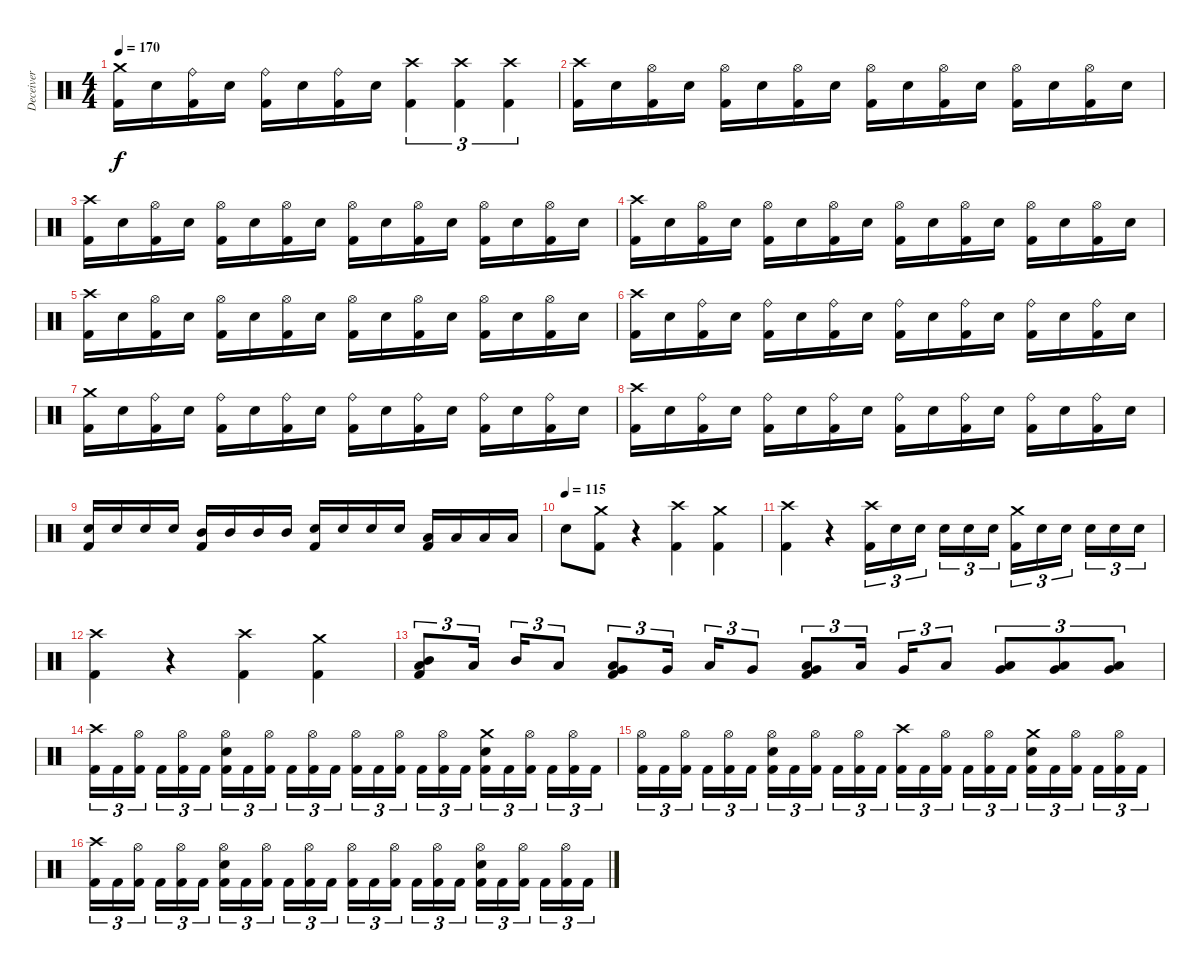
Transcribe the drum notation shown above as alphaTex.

\track ("Deceiver" "Deceiver") {instrument percussion}
\staff {score}
\articulation defaults
\ts (4 4)
\tempo 170
\clef neutral
\ks c
("Crash medium (hit)" "Kick (hit) 2").16{dy f} "Electric Snare (hit)".16 ("Ride (bell)" "Kick (hit) 2").16 "Electric Snare (hit)".16 ("Ride (bell)" "Kick (hit) 2").16 "Electric Snare (hit)".16 ("Ride (bell)" "Kick (hit) 2").16 "Electric Snare (hit)".16 ("Crash high (hit)" "Kick (hit) 2").4{tu (3 2)} ("Crash high (hit)" "Kick (hit) 2").4{tu (3 2)} ("Crash high (hit)" "Kick (hit) 2").4{tu (3 2)} |
("Crash high (hit)" "Kick (hit) 2").16 "Electric Snare (hit)".16 ("Hi-Hat (open)" "Kick (hit) 2").16 "Electric Snare (hit)".16 ("Hi-Hat (open)" "Kick (hit) 2").16 "Electric Snare (hit)".16 ("Hi-Hat (open)" "Kick (hit) 2").16 "Electric Snare (hit)".16 ("Hi-Hat (open)" "Kick (hit) 2").16 "Electric Snare (hit)".16 ("Hi-Hat (open)" "Kick (hit) 2").16 "Electric Snare (hit)".16 ("Hi-Hat (open)" "Kick (hit) 2").16 "Electric Snare (hit)".16 ("Hi-Hat (open)" "Kick (hit) 2").16 "Electric Snare (hit)".16 |
("Crash high (hit)" "Kick (hit) 2").16 "Electric Snare (hit)".16 ("Hi-Hat (open)" "Kick (hit) 2").16 "Electric Snare (hit)".16 ("Hi-Hat (open)" "Kick (hit) 2").16 "Electric Snare (hit)".16 ("Hi-Hat (open)" "Kick (hit) 2").16 "Electric Snare (hit)".16 ("Hi-Hat (open)" "Kick (hit) 2").16 "Electric Snare (hit)".16 ("Hi-Hat (open)" "Kick (hit) 2").16 "Electric Snare (hit)".16 ("Hi-Hat (open)" "Kick (hit) 2").16 "Electric Snare (hit)".16 ("Hi-Hat (open)" "Kick (hit) 2").16 "Electric Snare (hit)".16 |
("Crash high (hit)" "Kick (hit) 2").16 "Electric Snare (hit)".16 ("Hi-Hat (open)" "Kick (hit) 2").16 "Electric Snare (hit)".16 ("Hi-Hat (open)" "Kick (hit) 2").16 "Electric Snare (hit)".16 ("Hi-Hat (open)" "Kick (hit) 2").16 "Electric Snare (hit)".16 ("Hi-Hat (open)" "Kick (hit) 2").16 "Electric Snare (hit)".16 ("Hi-Hat (open)" "Kick (hit) 2").16 "Electric Snare (hit)".16 ("Hi-Hat (open)" "Kick (hit) 2").16 "Electric Snare (hit)".16 ("Hi-Hat (open)" "Kick (hit) 2").16 "Electric Snare (hit)".16 |
("Crash high (hit)" "Kick (hit) 2").16 "Electric Snare (hit)".16 ("Hi-Hat (open)" "Kick (hit) 2").16 "Electric Snare (hit)".16 ("Hi-Hat (open)" "Kick (hit) 2").16 "Electric Snare (hit)".16 ("Hi-Hat (open)" "Kick (hit) 2").16 "Electric Snare (hit)".16 ("Hi-Hat (open)" "Kick (hit) 2").16 "Electric Snare (hit)".16 ("Hi-Hat (open)" "Kick (hit) 2").16 "Electric Snare (hit)".16 ("Hi-Hat (open)" "Kick (hit) 2").16 "Electric Snare (hit)".16 ("Hi-Hat (open)" "Kick (hit) 2").16 "Electric Snare (hit)".16 |
("Crash high (hit)" "Kick (hit) 2").16 "Electric Snare (hit)".16 ("Ride (bell)" "Kick (hit) 2").16 "Electric Snare (hit)".16 ("Ride (bell)" "Kick (hit) 2").16 "Electric Snare (hit)".16 ("Ride (bell)" "Kick (hit) 2").16 "Electric Snare (hit)".16 ("Ride (bell)" "Kick (hit) 2").16 "Electric Snare (hit)".16 ("Ride (bell)" "Kick (hit) 2").16 "Electric Snare (hit)".16 ("Ride (bell)" "Kick (hit) 2").16 "Electric Snare (hit)".16 ("Ride (bell)" "Kick (hit) 2").16 "Electric Snare (hit)".16 |
("Crash medium (hit)" "Kick (hit) 2").16 "Electric Snare (hit)".16 ("Ride (bell)" "Kick (hit) 2").16 "Electric Snare (hit)".16 ("Ride (bell)" "Kick (hit) 2").16 "Electric Snare (hit)".16 ("Ride (bell)" "Kick (hit) 2").16 "Electric Snare (hit)".16 ("Ride (bell)" "Kick (hit) 2").16 "Electric Snare (hit)".16 ("Ride (bell)" "Kick (hit) 2").16 "Electric Snare (hit)".16 ("Ride (bell)" "Kick (hit) 2").16 "Electric Snare (hit)".16 ("Ride (bell)" "Kick (hit) 2").16 "Electric Snare (hit)".16 |
("Crash high (hit)" "Kick (hit) 2").16 "Electric Snare (hit)".16 ("Ride (bell)" "Kick (hit) 2").16 "Electric Snare (hit)".16 ("Ride (bell)" "Kick (hit) 2").16 "Electric Snare (hit)".16 ("Ride (bell)" "Kick (hit) 2").16 "Electric Snare (hit)".16 ("Ride (bell)" "Kick (hit) 2").16 "Electric Snare (hit)".16 ("Ride (bell)" "Kick (hit) 2").16 "Electric Snare (hit)".16 ("Ride (bell)" "Kick (hit) 2").16 "Electric Snare (hit)".16 ("Ride (bell)" "Kick (hit) 2").16 "Electric Snare (hit)".16 |
("Electric Snare (hit)" "Kick (hit) 2").16 "Electric Snare (hit)".16 "Electric Snare (hit)".16 "Electric Snare (hit)".16 ("Mid Tom (hit)" "Kick (hit) 2").16 "Mid Tom (hit)".16 "Mid Tom (hit)".16 "Mid Tom (hit)".16 ("Electric Snare (hit)" "Kick (hit) 2").16 "Electric Snare (hit)".16 "Electric Snare (hit)".16 "Electric Snare (hit)".16 ("Low Tom (hit)" "Kick (hit) 2").16 "Low Tom (hit)".16 "Low Tom (hit)".16 "Low Tom (hit)".16 |
\tempo (115)
"Electric Snare (hit)".8 ("Crash medium (hit)" "Kick (hit) 2").8 r.4 ("Crash high (hit)" "Kick (hit) 2").4 ("Crash medium (hit)" "Kick (hit) 2").4 |
("Crash high (hit)" "Kick (hit) 2").4 r.4 ("Crash high (hit)" "Kick (hit) 2").16{tu (3 2)} "Electric Snare (hit)".16{tu (3 2)} "Electric Snare (hit)".16{tu (3 2) beam splitsecondary} "Electric Snare (hit)".16{tu (3 2)} "Electric Snare (hit)".16{tu (3 2)} "Electric Snare (hit)".16{tu (3 2)} ("Crash medium (hit)" "Kick (hit) 2").16{tu (3 2)} "Electric Snare (hit)".16{tu (3 2)} "Electric Snare (hit)".16{tu (3 2) beam splitsecondary} "Electric Snare (hit)".16{tu (3 2)} "Electric Snare (hit)".16{tu (3 2)} "Electric Snare (hit)".16{tu (3 2)} |
("Crash high (hit)" "Kick (hit) 2").4 r.4 ("Crash high (hit)" "Kick (hit) 2").4 ("Crash medium (hit)" "Kick (hit) 2").4 |
("Mid Tom (hit)" "Low Tom (hit)" "Kick (hit) 2").8{tu (3 2)} "Low Tom (hit)".16{tu (3 2) beam splitsecondary} "Mid Tom (hit)".16{tu (3 2)} "Low Tom (hit)".8{tu (3 2)} ("Low Tom (hit)" "Very Low Tom (hit)" "Kick (hit) 2").8{tu (3 2)} "Very Low Tom (hit)".16{tu (3 2) beam splitsecondary} "Low Tom (hit)".16{tu (3 2)} "Very Low Tom (hit)".8{tu (3 2)} ("Very Low Tom (hit)" "Low Floor Tom (hit)" "Kick (hit) 2").8{tu (3 2)} "Low Floor Tom (hit)".16{tu (3 2) beam splitsecondary} "Very Low Tom (hit)".16{tu (3 2)} "Low Floor Tom (hit)".8{tu (3 2)} ("Low Tom (hit)" "Very Low Tom (hit)").8{tu (3 2)} ("Low Tom (hit)" "Very Low Tom (hit)").8{tu (3 2)} ("Low Tom (hit)" "Very Low Tom (hit)").8{tu (3 2)} |
("Crash high (hit)" "Kick (hit) 2").16{tu (3 2)} "Kick (hit) 2".16{tu (3 2)} ("Hi-Hat (open)" "Kick (hit) 2").16{tu (3 2) beam splitsecondary} "Kick (hit) 2".16{tu (3 2)} ("Hi-Hat (open)" "Kick (hit) 2").16{tu (3 2)} "Kick (hit) 2".16{tu (3 2)} ("Hi-Hat (open)" "Electric Snare (hit)" "Kick (hit) 2").16{tu (3 2)} "Kick (hit) 2".16{tu (3 2)} ("Hi-Hat (open)" "Kick (hit) 2").16{tu (3 2) beam splitsecondary} "Kick (hit) 2".16{tu (3 2)} ("Hi-Hat (open)" "Kick (hit) 2").16{tu (3 2)} "Kick (hit) 2".16{tu (3 2)} ("Hi-Hat (open)" "Kick (hit) 2").16{tu (3 2)} "Kick (hit) 2".16{tu (3 2)} ("Hi-Hat (open)" "Kick (hit) 2").16{tu (3 2) beam splitsecondary} "Kick (hit) 2".16{tu (3 2)} ("Hi-Hat (open)" "Kick (hit) 2").16{tu (3 2)} "Kick (hit) 2".16{tu (3 2)} ("Crash medium (hit)" "Electric Snare (hit)" "Kick (hit) 2").16{tu (3 2)} "Kick (hit) 2".16{tu (3 2)} ("Hi-Hat (open)" "Kick (hit) 2").16{tu (3 2) beam splitsecondary} "Kick (hit) 2".16{tu (3 2)} ("Hi-Hat (open)" "Kick (hit) 2").16{tu (3 2)} "Kick (hit) 2".16{tu (3 2)} |
("Hi-Hat (open)" "Kick (hit) 2").16{tu (3 2)} "Kick (hit) 2".16{tu (3 2)} ("Hi-Hat (open)" "Kick (hit) 2").16{tu (3 2) beam splitsecondary} "Kick (hit) 2".16{tu (3 2)} ("Hi-Hat (open)" "Kick (hit) 2").16{tu (3 2)} "Kick (hit) 2".16{tu (3 2)} ("Hi-Hat (open)" "Electric Snare (hit)" "Kick (hit) 2").16{tu (3 2)} "Kick (hit) 2".16{tu (3 2)} ("Hi-Hat (open)" "Kick (hit) 2").16{tu (3 2) beam splitsecondary} "Kick (hit) 2".16{tu (3 2)} ("Hi-Hat (open)" "Kick (hit) 2").16{tu (3 2)} "Kick (hit) 2".16{tu (3 2)} ("Crash high (hit)" "Kick (hit) 2").16{tu (3 2)} "Kick (hit) 2".16{tu (3 2)} ("Hi-Hat (open)" "Kick (hit) 2").16{tu (3 2) beam splitsecondary} "Kick (hit) 2".16{tu (3 2)} ("Hi-Hat (open)" "Kick (hit) 2").16{tu (3 2)} "Kick (hit) 2".16{tu (3 2)} ("Crash medium (hit)" "Electric Snare (hit)" "Kick (hit) 2").16{tu (3 2)} "Kick (hit) 2".16{tu (3 2)} ("Hi-Hat (open)" "Kick (hit) 2").16{tu (3 2) beam splitsecondary} "Kick (hit) 2".16{tu (3 2)} ("Hi-Hat (open)" "Kick (hit) 2").16{tu (3 2)} "Kick (hit) 2".16{tu (3 2)} |
("Crash high (hit)" "Kick (hit) 2").16{tu (3 2)} "Kick (hit) 2".16{tu (3 2)} ("Hi-Hat (open)" "Kick (hit) 2").16{tu (3 2) beam splitsecondary} "Kick (hit) 2".16{tu (3 2)} ("Hi-Hat (open)" "Kick (hit) 2").16{tu (3 2)} "Kick (hit) 2".16{tu (3 2)} ("Hi-Hat (open)" "Electric Snare (hit)" "Kick (hit) 2").16{tu (3 2)} "Kick (hit) 2".16{tu (3 2)} ("Hi-Hat (open)" "Kick (hit) 2").16{tu (3 2) beam splitsecondary} "Kick (hit) 2".16{tu (3 2)} ("Hi-Hat (open)" "Kick (hit) 2").16{tu (3 2)} "Kick (hit) 2".16{tu (3 2)} ("Hi-Hat (open)" "Kick (hit) 2").16{tu (3 2)} "Kick (hit) 2".16{tu (3 2)} ("Hi-Hat (open)" "Kick (hit) 2").16{tu (3 2) beam splitsecondary} "Kick (hit) 2".16{tu (3 2)} ("Hi-Hat (open)" "Kick (hit) 2").16{tu (3 2)} "Kick (hit) 2".16{tu (3 2)} ("Hi-Hat (open)" "Electric Snare (hit)" "Kick (hit) 2").16{tu (3 2)} "Kick (hit) 2".16{tu (3 2)} ("Hi-Hat (open)" "Kick (hit) 2").16{tu (3 2) beam splitsecondary} "Kick (hit) 2".16{tu (3 2)} ("Hi-Hat (open)" "Kick (hit) 2").16{tu (3 2)} "Kick (hit) 2".16{tu (3 2)}
